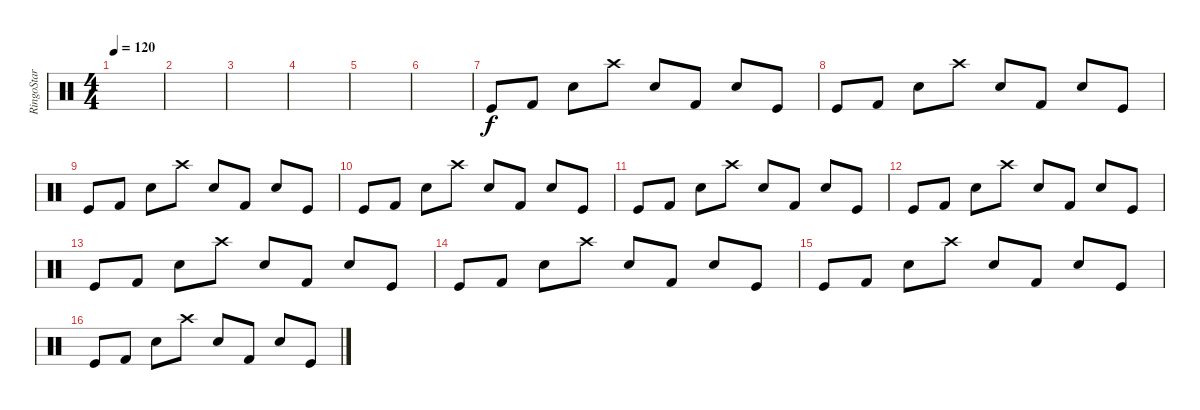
\track ("RingoStar" "RingoStar") {instrument percussion}
\staff {score}
\articulation defaults
\ts (4 4)
\tempo 120
\clef neutral
\ks c
|
|
|
|
|
|
"Kick (hit)".8 "Kick (hit) 2".8 "Snare (hit) 2".8 "Crash high (hit)".8 "Snare (hit) 2".8 "Kick (hit) 2".8 "Snare (hit) 2".8 "Kick (hit)".8 |
"Kick (hit)".8 "Kick (hit) 2".8 "Snare (hit) 2".8 "Crash high (hit)".8 "Snare (hit) 2".8 "Kick (hit) 2".8 "Snare (hit) 2".8 "Kick (hit)".8 |
"Kick (hit)".8 "Kick (hit) 2".8 "Snare (hit) 2".8 "Crash high (hit)".8 "Snare (hit) 2".8 "Kick (hit) 2".8 "Snare (hit) 2".8 "Kick (hit)".8 |
"Kick (hit)".8 "Kick (hit) 2".8 "Snare (hit) 2".8 "Crash high (hit)".8 "Snare (hit) 2".8 "Kick (hit) 2".8 "Snare (hit) 2".8 "Kick (hit)".8 |
"Kick (hit)".8 "Kick (hit) 2".8 "Snare (hit) 2".8 "Crash high (hit)".8 "Snare (hit) 2".8 "Kick (hit) 2".8 "Snare (hit) 2".8 "Kick (hit)".8 |
"Kick (hit)".8 "Kick (hit) 2".8 "Snare (hit) 2".8 "Crash high (hit)".8 "Snare (hit) 2".8 "Kick (hit) 2".8 "Snare (hit) 2".8 "Kick (hit)".8 |
"Kick (hit)".8 "Kick (hit) 2".8 "Snare (hit) 2".8 "Crash high (hit)".8 "Snare (hit) 2".8 "Kick (hit) 2".8 "Snare (hit) 2".8 "Kick (hit)".8 |
"Kick (hit)".8 "Kick (hit) 2".8 "Snare (hit) 2".8 "Crash high (hit)".8 "Snare (hit) 2".8 "Kick (hit) 2".8 "Snare (hit) 2".8 "Kick (hit)".8 |
"Kick (hit)".8 "Kick (hit) 2".8 "Snare (hit) 2".8 "Crash high (hit)".8 "Snare (hit) 2".8 "Kick (hit) 2".8 "Snare (hit) 2".8 "Kick (hit)".8 |
"Kick (hit)".8 "Kick (hit) 2".8 "Snare (hit) 2".8 "Crash high (hit)".8 "Snare (hit) 2".8 "Kick (hit) 2".8 "Snare (hit) 2".8 "Kick (hit)".8
